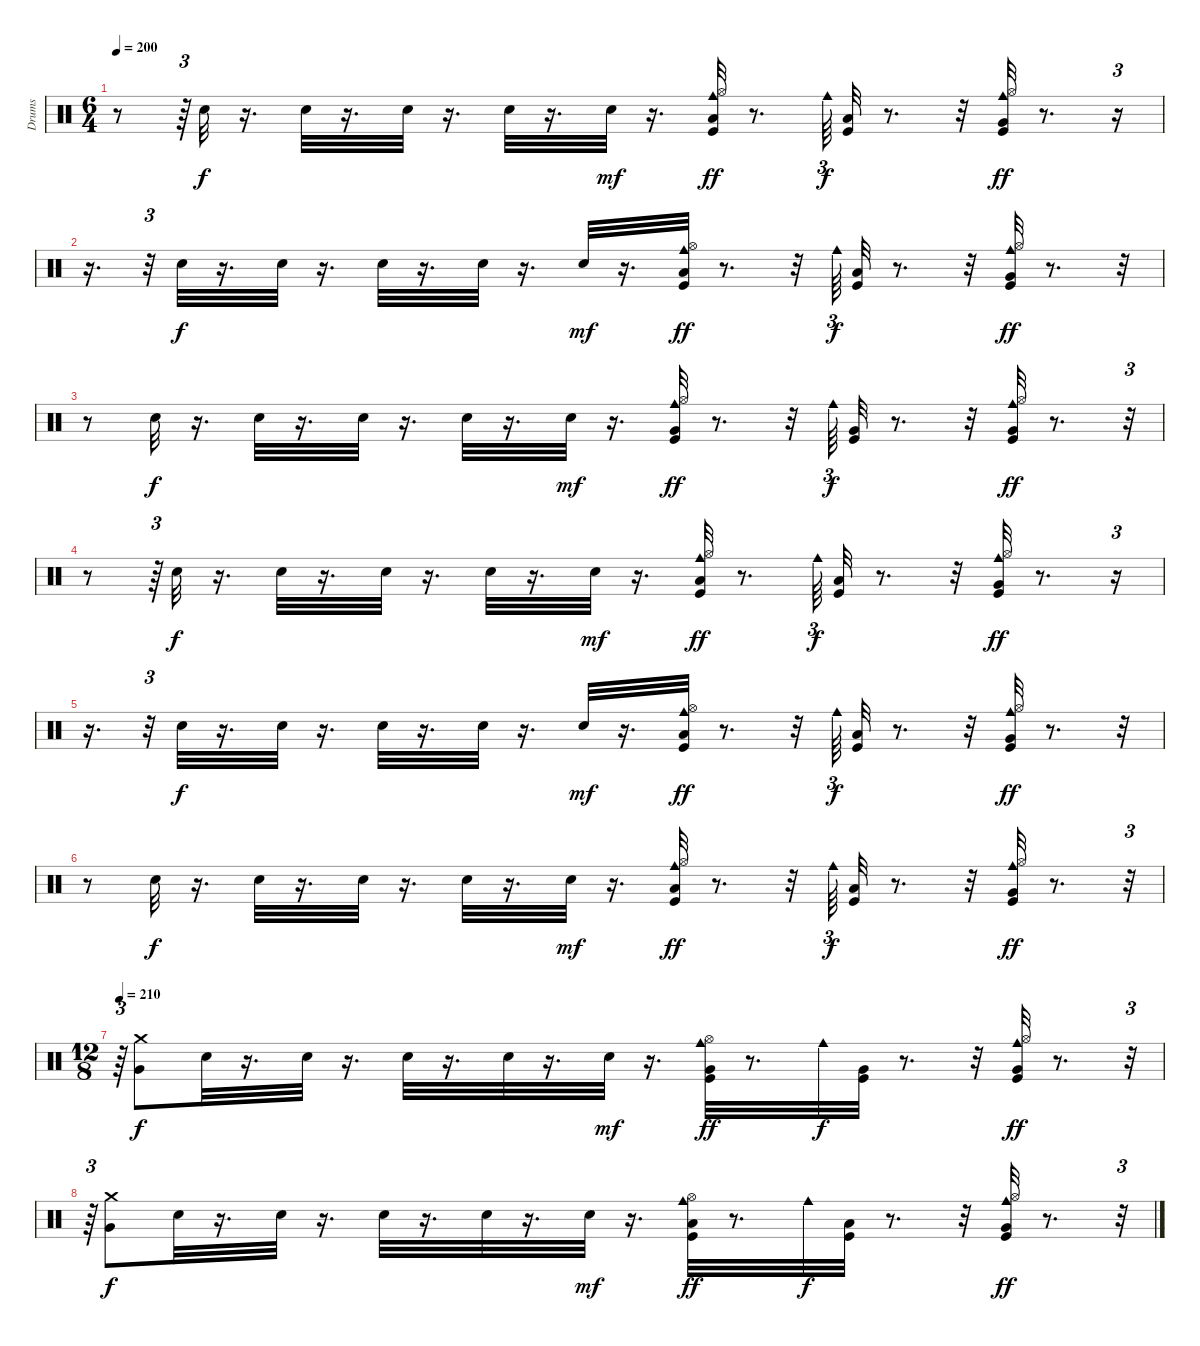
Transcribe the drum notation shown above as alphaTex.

\track ("Drums" "Drums") {instrument percussion}
\staff {score}
\articulation defaults
\ts (6 4)
\tempo 200
\clef neutral
\ks c
r.8{dy ff} r.64{tu (3 2)} "Snare (hit) 2".32{dy f} r.16{d} "Snare (hit) 2".32 r.16{d} "Snare (hit) 2".32 r.16{d} "Snare (hit) 2".32 r.16{d} "Snare (hit) 2".32{dy mf} r.16{d} ("Kick (hit)" "Hi-Hat (open)" "Cowbell medium (hit)" "Low Floor Tom (hit)").32{dy ff} r.8{d} "Cowbell medium (hit)".64{tu (3 2) dy f} ("Kick (hit)" "Low Floor Tom (hit)").32 r.8{d} r.32 ("Hi-Hat (open)" "Kick (hit)" "Cowbell medium (hit)" "Very Low Tom (hit)").32{dy ff} r.8{d} r.16{tu (3 2)} |
r.16{d} r.32{tu (3 2)} "Snare (hit) 2".32{dy f} r.16{d} "Snare (hit) 2".32 r.16{d} "Snare (hit) 2".32 r.16{d} "Snare (hit) 2".32 r.16{d} "Snare (hit) 2".32{dy mf} r.16{d} ("Kick (hit)" "Hi-Hat (open)" "Cowbell medium (hit)" "Low Floor Tom (hit)").32{dy ff} r.8{d} r.32 "Cowbell medium (hit)".64{tu (3 2) dy f} ("Kick (hit)" "Low Floor Tom (hit)").32 r.8{d} r.32 ("Hi-Hat (open)" "Kick (hit)" "Cowbell medium (hit)" "Very Low Tom (hit)").32{dy ff} r.8{d} r.32 |
r.8 "Snare (hit) 2".32{dy f} r.16{d} "Snare (hit) 2".32 r.16{d} "Snare (hit) 2".32 r.16{d} "Snare (hit) 2".32 r.16{d} "Electric Snare (hit)".32{dy mf} r.16{d} ("Very Low Tom (hit)" "Kick (hit)" "Hi-Hat (open)" "Cowbell medium (hit)").32{dy ff} r.8{d} r.32 "Cowbell medium (hit)".64{tu (3 2) dy f} ("Very Low Tom (hit)" "Kick (hit)").32 r.8{d} r.32 ("Very Low Tom (hit)" "Hi-Hat (open)" "Kick (hit)" "Cowbell medium (hit)").32{dy ff} r.8{d} r.32{tu (3 2)} |
r.8 r.64{tu (3 2)} "Snare (hit) 2".32{dy f} r.16{d} "Snare (hit) 2".32 r.16{d} "Snare (hit) 2".32 r.16{d} "Snare (hit) 2".32 r.16{d} "Snare (hit) 2".32{dy mf} r.16{d} ("Kick (hit)" "Hi-Hat (open)" "Cowbell medium (hit)" "Low Floor Tom (hit)").32{dy ff} r.8{d} "Cowbell medium (hit)".64{tu (3 2) dy f} ("Kick (hit)" "Low Floor Tom (hit)").32 r.8{d} r.32 ("Hi-Hat (open)" "Kick (hit)" "Cowbell medium (hit)" "Very Low Tom (hit)").32{dy ff} r.8{d} r.16{tu (3 2)} |
r.16{d} r.32{tu (3 2)} "Snare (hit) 2".32{dy f} r.16{d} "Snare (hit) 2".32 r.16{d} "Snare (hit) 2".32 r.16{d} "Snare (hit) 2".32 r.16{d} "Snare (hit) 2".32{dy mf} r.16{d} ("Kick (hit)" "Hi-Hat (open)" "Cowbell medium (hit)" "Low Floor Tom (hit)").32{dy ff} r.8{d} r.32 "Cowbell medium (hit)".64{tu (3 2) dy f} ("Kick (hit)" "Low Floor Tom (hit)").32 r.8{d} r.32 ("Hi-Hat (open)" "Kick (hit)" "Cowbell medium (hit)" "Very Low Tom (hit)").32{dy ff} r.8{d} r.32 |
r.8 "Snare (hit) 2".32{dy f} r.16{d} "Snare (hit) 2".32 r.16{d} "Snare (hit) 2".32 r.16{d} "Snare (hit) 2".32 r.16{d} "Snare (hit) 2".32{dy mf} r.16{d} ("Kick (hit)" "Hi-Hat (open)" "Cowbell medium (hit)" "Low Floor Tom (hit)").32{dy ff} r.8{d} r.32 "Cowbell medium (hit)".64{tu (3 2) dy f} ("Kick (hit)" "Low Floor Tom (hit)").32 r.8{d} r.32 ("Hi-Hat (open)" "Kick (hit)" "Cowbell medium (hit)" "Very Low Tom (hit)").32{dy ff} r.8{d} r.32{tu (3 2)} |
\ts (12 8)
\tempo 210
r.64{tu (3 2)} ("Crash medium (hit)" "Very Low Tom (hit)").8{dy f} "Snare (hit) 2".32 r.16{d} "Snare (hit) 2".32 r.16{d} "Snare (hit) 2".32 r.16{d} "Snare (hit) 2".32 r.16{d} "Electric Snare (hit)".32{dy mf} r.16{d} ("Very Low Tom (hit)" "Kick (hit)" "Hi-Hat (open)" "Cowbell medium (hit)").32{dy ff} r.8{d} "Cowbell medium (hit)".32{dy f} ("Very Low Tom (hit)" "Kick (hit)").32 r.8{d} r.32 ("Very Low Tom (hit)" "Hi-Hat (open)" "Kick (hit)" "Cowbell medium (hit)").32{dy ff} r.8{d} r.32{tu (3 2)} |
r.64{tu (3 2)} ("Very Low Tom (hit)" "Crash medium (hit)").8{dy f} "Snare (hit) 2".32 r.16{d} "Snare (hit) 2".32 r.16{d} "Snare (hit) 2".32 r.16{d} "Snare (hit) 2".32 r.16{d} "Snare (hit) 2".32{dy mf} r.16{d} ("Kick (hit)" "Hi-Hat (open)" "Cowbell medium (hit)" "Low Floor Tom (hit)").32{dy ff} r.8{d} "Cowbell medium (hit)".32{dy f} ("Kick (hit)" "Low Floor Tom (hit)").32 r.8{d} r.32 ("Hi-Hat (open)" "Kick (hit)" "Cowbell medium (hit)" "Very Low Tom (hit)").32{dy ff} r.8{d} r.32{tu (3 2)}
